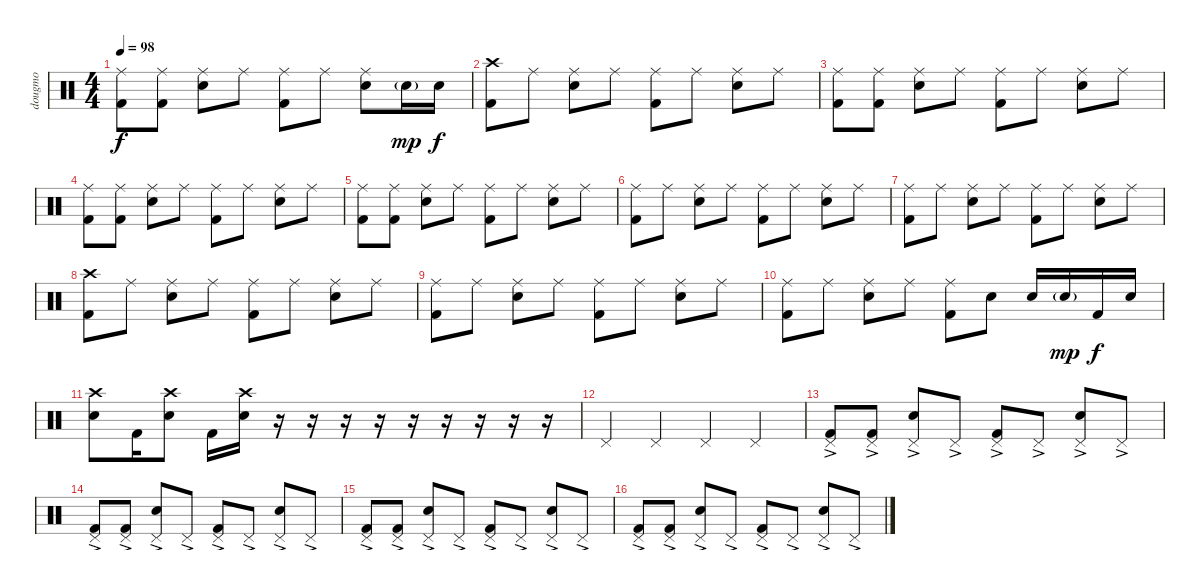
\track ("dougmo" "dougmo") {instrument percussion}
\staff {score}
\articulation defaults
\ts (4 4)
\tempo 98
\clef neutral
\ks c
("Ride (middle)" "Kick (hit) 2").8{dy f} ("Ride (middle)" "Kick (hit) 2").8 ("Ride (middle)" "Electric Snare (hit)").8 "Ride (middle)".8 ("Ride (middle)" "Kick (hit) 2").8 "Ride (middle)".8 ("Ride (middle)" "Electric Snare (hit)").8 "Electric Snare (hit)"{g}.16{dy mp} "Electric Snare (hit)".16{dy f} |
("Crash high (hit)" "Kick (hit) 2").8 "Ride (middle)".8 ("Ride (middle)" "Electric Snare (hit)").8 "Ride (middle)".8 ("Ride (middle)" "Kick (hit) 2").8 "Ride (middle)".8 ("Ride (middle)" "Electric Snare (hit)").8 "Ride (middle)".8 |
("Ride (middle)" "Kick (hit) 2").8 ("Ride (middle)" "Kick (hit) 2").8 ("Ride (middle)" "Electric Snare (hit)").8 "Ride (middle)".8 ("Ride (middle)" "Kick (hit) 2").8 "Ride (middle)".8 ("Ride (middle)" "Electric Snare (hit)").8 "Ride (middle)".8 |
("Ride (middle)" "Kick (hit) 2").8 ("Ride (middle)" "Kick (hit) 2").8 ("Ride (middle)" "Electric Snare (hit)").8 "Ride (middle)".8 ("Ride (middle)" "Kick (hit) 2").8 "Ride (middle)".8 ("Ride (middle)" "Electric Snare (hit)").8 "Ride (middle)".8 |
("Ride (middle)" "Kick (hit) 2").8 ("Ride (middle)" "Kick (hit) 2").8 ("Ride (middle)" "Electric Snare (hit)").8 "Ride (middle)".8 ("Ride (middle)" "Kick (hit) 2").8 "Ride (middle)".8 ("Ride (middle)" "Electric Snare (hit)").8 "Ride (middle)".8 |
("Ride (middle)" "Kick (hit) 2").8 "Ride (middle)".8 ("Ride (middle)" "Electric Snare (hit)").8 "Ride (middle)".8 ("Ride (middle)" "Kick (hit) 2").8 "Ride (middle)".8 ("Ride (middle)" "Electric Snare (hit)").8 "Ride (middle)".8 |
("Ride (middle)" "Kick (hit) 2").8 "Ride (middle)".8 ("Ride (middle)" "Electric Snare (hit)").8 "Ride (middle)".8 ("Ride (middle)" "Kick (hit) 2").8 "Ride (middle)".8 ("Ride (middle)" "Electric Snare (hit)").8 "Ride (middle)".8 |
("Crash high (hit)" "Kick (hit) 2").8 "Ride (middle)".8 ("Ride (middle)" "Electric Snare (hit)").8 "Ride (middle)".8 ("Ride (middle)" "Kick (hit) 2").8 "Ride (middle)".8 ("Ride (middle)" "Electric Snare (hit)").8 "Ride (middle)".8 |
("Ride (middle)" "Kick (hit) 2").8 "Ride (middle)".8 ("Ride (middle)" "Electric Snare (hit)").8 "Ride (middle)".8 ("Ride (middle)" "Kick (hit) 2").8 "Ride (middle)".8 ("Ride (middle)" "Electric Snare (hit)").8 "Ride (middle)".8 |
("Ride (middle)" "Kick (hit) 2").8 "Ride (middle)".8 ("Ride (middle)" "Electric Snare (hit)").8 "Ride (middle)".8 ("Ride (middle)" "Kick (hit) 2").8 "Electric Snare (hit)".8 "Electric Snare (hit)".16 "Electric Snare (hit)"{g}.16{dy mp} "Kick (hit) 2".16{dy f} "Electric Snare (hit)".16 |
("Crash high (hit)" "Electric Snare (hit)").8 "Kick (hit) 2".16 ("Crash high (hit)" "Electric Snare (hit)").8 "Kick (hit) 2".16 ("Crash high (hit)" "Electric Snare (hit)").16 r.16 r.16 r.16 r.16 r.16 r.16 r.16 r.16 r.16 |
"Pedal Hi-Hat (hit)".4 "Pedal Hi-Hat (hit)".4 "Pedal Hi-Hat (hit)".4 "Pedal Hi-Hat (hit)".4 |
("Pedal Hi-Hat (hit)"{ac} "Kick (hit) 2").8 ("Pedal Hi-Hat (hit)"{ac} "Kick (hit) 2").8 ("Pedal Hi-Hat (hit)"{ac} "Electric Snare (hit)").8 "Pedal Hi-Hat (hit)"{ac}.8 ("Pedal Hi-Hat (hit)"{ac} "Kick (hit) 2").8 "Pedal Hi-Hat (hit)"{ac}.8 ("Pedal Hi-Hat (hit)"{ac} "Electric Snare (hit)").8 "Pedal Hi-Hat (hit)"{ac}.8 |
("Pedal Hi-Hat (hit)"{ac} "Kick (hit) 2").8 ("Pedal Hi-Hat (hit)"{ac} "Kick (hit) 2").8 ("Pedal Hi-Hat (hit)"{ac} "Electric Snare (hit)").8 "Pedal Hi-Hat (hit)"{ac}.8 ("Pedal Hi-Hat (hit)"{ac} "Kick (hit) 2").8 "Pedal Hi-Hat (hit)"{ac}.8 ("Pedal Hi-Hat (hit)"{ac} "Electric Snare (hit)").8 "Pedal Hi-Hat (hit)"{ac}.8 |
("Pedal Hi-Hat (hit)"{ac} "Kick (hit) 2").8 ("Pedal Hi-Hat (hit)"{ac} "Kick (hit) 2").8 ("Pedal Hi-Hat (hit)"{ac} "Electric Snare (hit)").8 "Pedal Hi-Hat (hit)"{ac}.8 ("Pedal Hi-Hat (hit)"{ac} "Kick (hit) 2").8 "Pedal Hi-Hat (hit)"{ac}.8 ("Pedal Hi-Hat (hit)"{ac} "Electric Snare (hit)").8 "Pedal Hi-Hat (hit)"{ac}.8 |
("Pedal Hi-Hat (hit)"{ac} "Kick (hit) 2").8 ("Pedal Hi-Hat (hit)"{ac} "Kick (hit) 2").8 ("Pedal Hi-Hat (hit)"{ac} "Electric Snare (hit)").8 "Pedal Hi-Hat (hit)"{ac}.8 ("Pedal Hi-Hat (hit)"{ac} "Kick (hit) 2").8 "Pedal Hi-Hat (hit)"{ac}.8 ("Pedal Hi-Hat (hit)"{ac} "Electric Snare (hit)").8 "Pedal Hi-Hat (hit)"{ac}.8
